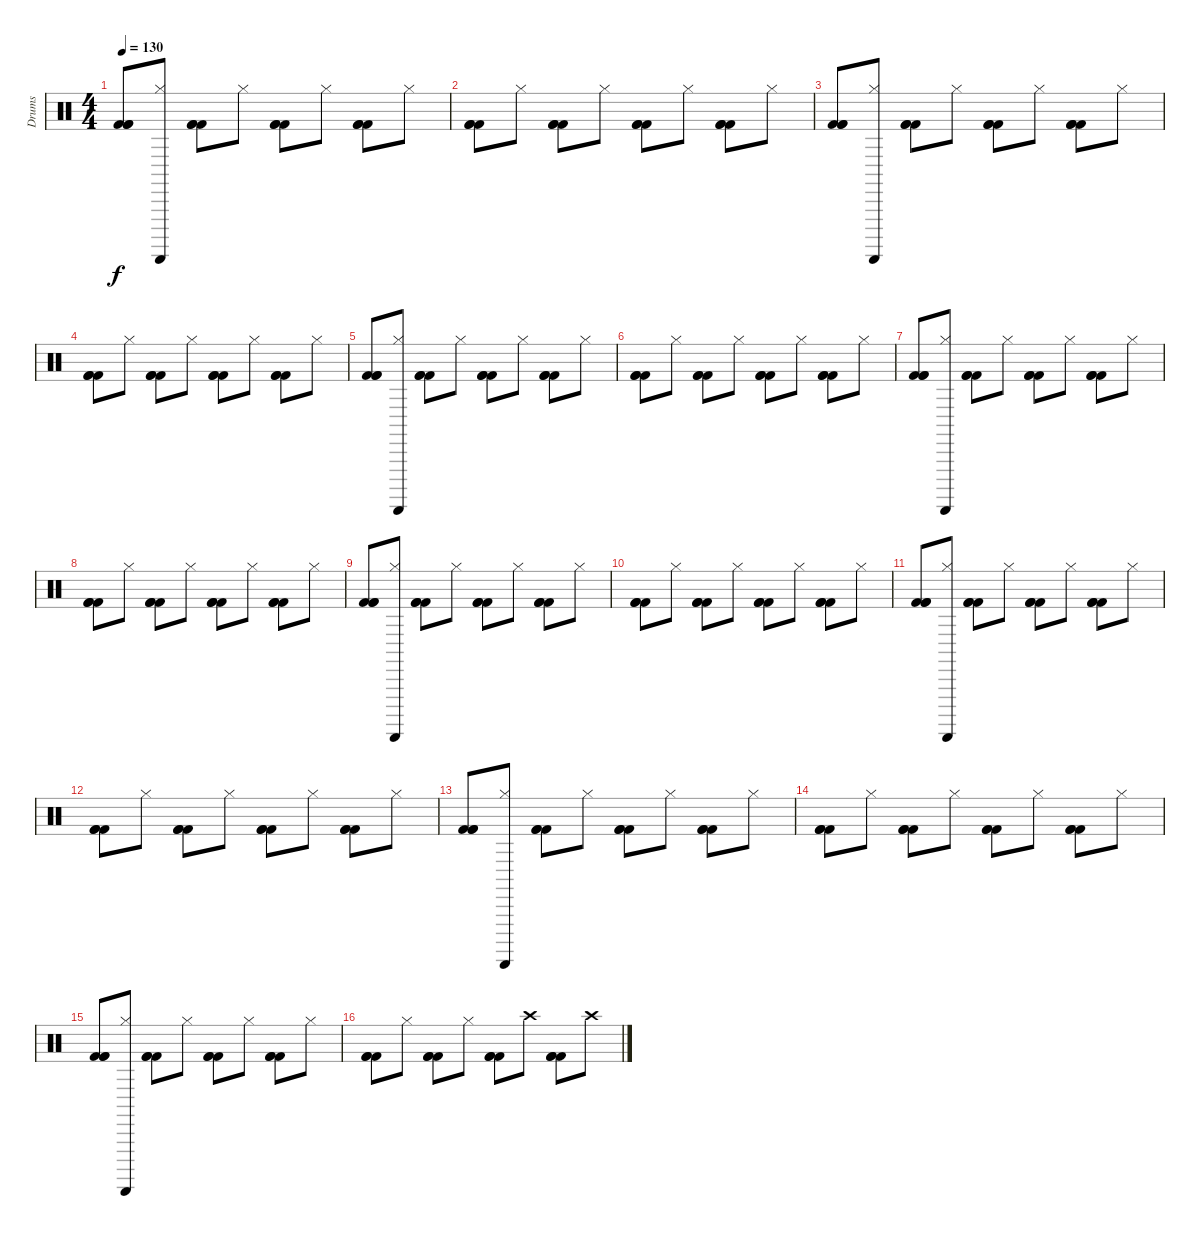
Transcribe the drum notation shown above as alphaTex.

\track ("Drums" "Drums") {instrument percussion}
\staff {score}
\articulation defaults
\ts (4 4)
\tempo 130
\clef neutral
\ks c
("Kick (hit) 2" "Kick (hit) 2" "Kick (hit) 2").8{dy f} ("Guiro (scrap-return)" "Hi-Hat (closed)").8 ("Kick (hit) 2" "Kick (hit) 2" "Kick (hit) 2").8 "Hi-Hat (closed)".8 ("Kick (hit) 2" "Kick (hit) 2" "Kick (hit) 2").8 "Hi-Hat (closed)".8 ("Kick (hit) 2" "Kick (hit) 2" "Kick (hit) 2").8 "Hi-Hat (closed)".8 |
("Kick (hit) 2" "Kick (hit) 2" "Kick (hit) 2").8 "Hi-Hat (closed)".8 ("Kick (hit) 2" "Kick (hit) 2" "Kick (hit) 2").8 "Hi-Hat (closed)".8 ("Kick (hit) 2" "Kick (hit) 2" "Kick (hit) 2").8 "Hi-Hat (closed)".8 ("Kick (hit) 2" "Kick (hit) 2" "Kick (hit) 2").8 "Hi-Hat (closed)".8 |
("Kick (hit) 2" "Kick (hit) 2" "Kick (hit) 2").8 ("Guiro (scrap-return)" "Hi-Hat (closed)").8 ("Kick (hit) 2" "Kick (hit) 2" "Kick (hit) 2").8 "Hi-Hat (closed)".8 ("Kick (hit) 2" "Kick (hit) 2" "Kick (hit) 2").8 "Hi-Hat (closed)".8 ("Kick (hit) 2" "Kick (hit) 2" "Kick (hit) 2").8 "Hi-Hat (closed)".8 |
("Kick (hit) 2" "Kick (hit) 2" "Kick (hit) 2").8 "Hi-Hat (closed)".8 ("Kick (hit) 2" "Kick (hit) 2" "Kick (hit) 2").8 "Hi-Hat (closed)".8 ("Kick (hit) 2" "Kick (hit) 2" "Kick (hit) 2").8 "Hi-Hat (closed)".8 ("Kick (hit) 2" "Kick (hit) 2" "Kick (hit) 2").8 "Hi-Hat (closed)".8 |
("Kick (hit) 2" "Kick (hit) 2" "Kick (hit) 2").8 ("Guiro (scrap-return)" "Hi-Hat (closed)").8 ("Kick (hit) 2" "Kick (hit) 2" "Kick (hit) 2").8 "Hi-Hat (closed)".8 ("Kick (hit) 2" "Kick (hit) 2" "Kick (hit) 2").8 "Hi-Hat (closed)".8 ("Kick (hit) 2" "Kick (hit) 2" "Kick (hit) 2").8 "Hi-Hat (closed)".8 |
("Kick (hit) 2" "Kick (hit) 2" "Kick (hit) 2").8 "Hi-Hat (closed)".8 ("Kick (hit) 2" "Kick (hit) 2" "Kick (hit) 2").8 "Hi-Hat (closed)".8 ("Kick (hit) 2" "Kick (hit) 2" "Kick (hit) 2").8 "Hi-Hat (closed)".8 ("Kick (hit) 2" "Kick (hit) 2" "Kick (hit) 2").8 "Hi-Hat (closed)".8 |
("Kick (hit) 2" "Kick (hit) 2" "Kick (hit) 2").8 ("Guiro (scrap-return)" "Hi-Hat (closed)").8 ("Kick (hit) 2" "Kick (hit) 2" "Kick (hit) 2").8 "Hi-Hat (closed)".8 ("Kick (hit) 2" "Kick (hit) 2" "Kick (hit) 2").8 "Hi-Hat (closed)".8 ("Kick (hit) 2" "Kick (hit) 2" "Kick (hit) 2").8 "Hi-Hat (closed)".8 |
("Kick (hit) 2" "Kick (hit) 2" "Kick (hit) 2").8 "Hi-Hat (closed)".8 ("Kick (hit) 2" "Kick (hit) 2" "Kick (hit) 2").8 "Hi-Hat (closed)".8 ("Kick (hit) 2" "Kick (hit) 2" "Kick (hit) 2").8 "Hi-Hat (closed)".8 ("Kick (hit) 2" "Kick (hit) 2" "Kick (hit) 2").8 "Hi-Hat (closed)".8 |
("Kick (hit) 2" "Kick (hit) 2" "Kick (hit) 2").8 ("Guiro (scrap-return)" "Hi-Hat (closed)").8 ("Kick (hit) 2" "Kick (hit) 2" "Kick (hit) 2").8 "Hi-Hat (closed)".8 ("Kick (hit) 2" "Kick (hit) 2" "Kick (hit) 2").8 "Hi-Hat (closed)".8 ("Kick (hit) 2" "Kick (hit) 2" "Kick (hit) 2").8 "Hi-Hat (closed)".8 |
("Kick (hit) 2" "Kick (hit) 2" "Kick (hit) 2").8 "Hi-Hat (closed)".8 ("Kick (hit) 2" "Kick (hit) 2" "Kick (hit) 2").8 "Hi-Hat (closed)".8 ("Kick (hit) 2" "Kick (hit) 2" "Kick (hit) 2").8 "Hi-Hat (closed)".8 ("Kick (hit) 2" "Kick (hit) 2" "Kick (hit) 2").8 "Hi-Hat (closed)".8 |
("Kick (hit) 2" "Kick (hit) 2" "Kick (hit) 2").8 ("Guiro (scrap-return)" "Hi-Hat (closed)").8 ("Kick (hit) 2" "Kick (hit) 2" "Kick (hit) 2").8 "Hi-Hat (closed)".8 ("Kick (hit) 2" "Kick (hit) 2" "Kick (hit) 2").8 "Hi-Hat (closed)".8 ("Kick (hit) 2" "Kick (hit) 2" "Kick (hit) 2").8 "Hi-Hat (closed)".8 |
("Kick (hit) 2" "Kick (hit) 2" "Kick (hit) 2").8 "Hi-Hat (closed)".8 ("Kick (hit) 2" "Kick (hit) 2" "Kick (hit) 2").8 "Hi-Hat (closed)".8 ("Kick (hit) 2" "Kick (hit) 2" "Kick (hit) 2").8 "Hi-Hat (closed)".8 ("Kick (hit) 2" "Kick (hit) 2" "Kick (hit) 2").8 "Hi-Hat (closed)".8 |
("Kick (hit) 2" "Kick (hit) 2" "Kick (hit) 2").8 ("Guiro (scrap-return)" "Hi-Hat (closed)").8 ("Kick (hit) 2" "Kick (hit) 2" "Kick (hit) 2").8 "Hi-Hat (closed)".8 ("Kick (hit) 2" "Kick (hit) 2" "Kick (hit) 2").8 "Hi-Hat (closed)".8 ("Kick (hit) 2" "Kick (hit) 2" "Kick (hit) 2").8 "Hi-Hat (closed)".8 |
("Kick (hit) 2" "Kick (hit) 2" "Kick (hit) 2").8 "Hi-Hat (closed)".8 ("Kick (hit) 2" "Kick (hit) 2" "Kick (hit) 2").8 "Hi-Hat (closed)".8 ("Kick (hit) 2" "Kick (hit) 2" "Kick (hit) 2").8 "Hi-Hat (closed)".8 ("Kick (hit) 2" "Kick (hit) 2" "Kick (hit) 2").8 "Hi-Hat (closed)".8 |
("Kick (hit) 2" "Kick (hit) 2" "Kick (hit) 2").8 ("Guiro (scrap-return)" "Hi-Hat (closed)").8 ("Kick (hit) 2" "Kick (hit) 2" "Kick (hit) 2").8 "Hi-Hat (closed)".8 ("Kick (hit) 2" "Kick (hit) 2" "Kick (hit) 2").8 "Hi-Hat (closed)".8 ("Kick (hit) 2" "Kick (hit) 2" "Kick (hit) 2").8 "Hi-Hat (closed)".8 |
("Kick (hit) 2" "Kick (hit) 2" "Kick (hit) 2").8 "Hi-Hat (closed)".8 ("Kick (hit) 2" "Kick (hit) 2" "Kick (hit) 2").8 "Hi-Hat (closed)".8 ("Kick (hit) 2" "Kick (hit) 2" "Kick (hit) 2").8 "Crash high (hit)".8 ("Kick (hit) 2" "Kick (hit) 2" "Kick (hit) 2").8 "Crash high (hit)".8
